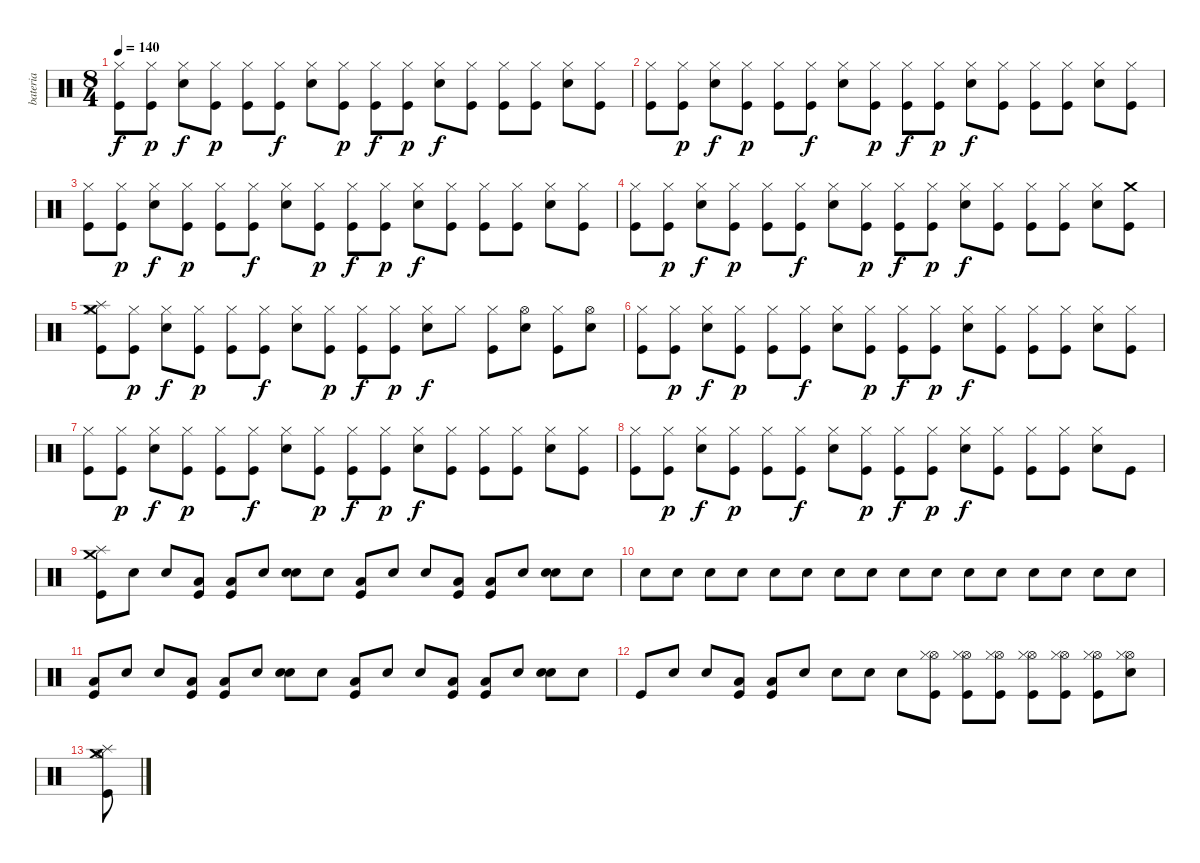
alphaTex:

\track ("bateria" "bateria") {instrument percussion}
\staff {score}
\articulation defaults
\ts (8 4)
\tempo 140
\clef neutral
\ks c
("Hi-Hat (closed)" "Kick (hit)").8{dy f} ("Hi-Hat (closed)" "Kick (hit)").8{dy p} ("Hi-Hat (closed)" "Electric Snare (hit)").8{dy f} ("Hi-Hat (closed)" "Kick (hit)").8{dy p} ("Hi-Hat (closed)" "Kick (hit)").8 ("Hi-Hat (closed)" "Kick (hit)").8{dy f} ("Hi-Hat (closed)" "Electric Snare (hit)").8 ("Hi-Hat (closed)" "Kick (hit)").8{dy p} ("Hi-Hat (closed)" "Kick (hit)").8{dy f} ("Hi-Hat (closed)" "Kick (hit)").8{dy p} ("Hi-Hat (closed)" "Electric Snare (hit)").8{dy f} ("Hi-Hat (closed)" "Kick (hit)").8 ("Hi-Hat (closed)" "Kick (hit)").8 ("Hi-Hat (closed)" "Kick (hit)").8 ("Hi-Hat (closed)" "Electric Snare (hit)").8 ("Hi-Hat (closed)" "Kick (hit)").8 |
("Hi-Hat (closed)" "Kick (hit)").8 ("Hi-Hat (closed)" "Kick (hit)").8{dy p} ("Hi-Hat (closed)" "Electric Snare (hit)").8{dy f} ("Hi-Hat (closed)" "Kick (hit)").8{dy p} ("Hi-Hat (closed)" "Kick (hit)").8 ("Hi-Hat (closed)" "Kick (hit)").8{dy f} ("Hi-Hat (closed)" "Electric Snare (hit)").8 ("Hi-Hat (closed)" "Kick (hit)").8{dy p} ("Hi-Hat (closed)" "Kick (hit)").8{dy f} ("Hi-Hat (closed)" "Kick (hit)").8{dy p} ("Hi-Hat (closed)" "Electric Snare (hit)").8{dy f} ("Hi-Hat (closed)" "Kick (hit)").8 ("Hi-Hat (closed)" "Kick (hit)").8 ("Hi-Hat (closed)" "Kick (hit)").8 ("Hi-Hat (closed)" "Electric Snare (hit)").8 ("Hi-Hat (closed)" "Kick (hit)").8 |
("Hi-Hat (closed)" "Kick (hit)").8 ("Hi-Hat (closed)" "Kick (hit)").8{dy p} ("Hi-Hat (closed)" "Electric Snare (hit)").8{dy f} ("Hi-Hat (closed)" "Kick (hit)").8{dy p} ("Hi-Hat (closed)" "Kick (hit)").8 ("Hi-Hat (closed)" "Kick (hit)").8{dy f} ("Hi-Hat (closed)" "Electric Snare (hit)").8 ("Hi-Hat (closed)" "Kick (hit)").8{dy p} ("Hi-Hat (closed)" "Kick (hit)").8{dy f} ("Hi-Hat (closed)" "Kick (hit)").8{dy p} ("Hi-Hat (closed)" "Electric Snare (hit)").8{dy f} ("Hi-Hat (closed)" "Kick (hit)").8 ("Hi-Hat (closed)" "Kick (hit)").8 ("Hi-Hat (closed)" "Kick (hit)").8 ("Hi-Hat (closed)" "Electric Snare (hit)").8 ("Hi-Hat (closed)" "Kick (hit)").8 |
("Hi-Hat (closed)" "Kick (hit)").8 ("Hi-Hat (closed)" "Kick (hit)").8{dy p} ("Hi-Hat (closed)" "Electric Snare (hit)").8{dy f} ("Hi-Hat (closed)" "Kick (hit)").8{dy p} ("Hi-Hat (closed)" "Kick (hit)").8 ("Hi-Hat (closed)" "Kick (hit)").8{dy f} ("Hi-Hat (closed)" "Electric Snare (hit)").8 ("Hi-Hat (closed)" "Kick (hit)").8{dy p} ("Hi-Hat (closed)" "Kick (hit)").8{dy f} ("Hi-Hat (closed)" "Kick (hit)").8{dy p} ("Hi-Hat (closed)" "Electric Snare (hit)").8{dy f} ("Hi-Hat (closed)" "Kick (hit)").8 ("Hi-Hat (closed)" "Kick (hit)").8 ("Hi-Hat (closed)" "Kick (hit)").8 ("Hi-Hat (closed)" "Electric Snare (hit)").8 ("Crash medium (hit)" "Kick (hit)").8 |
("Hi-Hat (closed)" "Splash (hit)" "Crash medium (hit)" "Kick (hit)").8 ("Hi-Hat (closed)" "Kick (hit)").8{dy p} ("Hi-Hat (closed)" "Electric Snare (hit)").8{dy f} ("Hi-Hat (closed)" "Kick (hit)").8{dy p} ("Hi-Hat (closed)" "Kick (hit)").8 ("Hi-Hat (closed)" "Kick (hit)").8{dy f} ("Hi-Hat (closed)" "Electric Snare (hit)").8 ("Hi-Hat (closed)" "Kick (hit)").8{dy p} ("Hi-Hat (closed)" "Kick (hit)").8{dy f} ("Hi-Hat (closed)" "Kick (hit)").8{dy p} ("Hi-Hat (closed)" "Electric Snare (hit)").8{dy f} "Hi-Hat (closed)".8 ("Hi-Hat (closed)" "Kick (hit)").8 ("Hi-Hat (open)" "Electric Snare (hit)").8 ("Hi-Hat (closed)" "Kick (hit)").8 ("Hi-Hat (open)" "Electric Snare (hit)").8 |
("Hi-Hat (closed)" "Kick (hit)").8 ("Hi-Hat (closed)" "Kick (hit)").8{dy p} ("Hi-Hat (closed)" "Electric Snare (hit)").8{dy f} ("Hi-Hat (closed)" "Kick (hit)").8{dy p} ("Hi-Hat (closed)" "Kick (hit)").8 ("Hi-Hat (closed)" "Kick (hit)").8{dy f} ("Hi-Hat (closed)" "Electric Snare (hit)").8 ("Hi-Hat (closed)" "Kick (hit)").8{dy p} ("Hi-Hat (closed)" "Kick (hit)").8{dy f} ("Hi-Hat (closed)" "Kick (hit)").8{dy p} ("Hi-Hat (closed)" "Electric Snare (hit)").8{dy f} ("Hi-Hat (closed)" "Kick (hit)").8 ("Hi-Hat (closed)" "Kick (hit)").8 ("Hi-Hat (closed)" "Kick (hit)").8 ("Hi-Hat (closed)" "Electric Snare (hit)").8 ("Hi-Hat (closed)" "Kick (hit)").8 |
("Hi-Hat (closed)" "Kick (hit)").8 ("Hi-Hat (closed)" "Kick (hit)").8{dy p} ("Hi-Hat (closed)" "Electric Snare (hit)").8{dy f} ("Hi-Hat (closed)" "Kick (hit)").8{dy p} ("Hi-Hat (closed)" "Kick (hit)").8 ("Hi-Hat (closed)" "Kick (hit)").8{dy f} ("Hi-Hat (closed)" "Electric Snare (hit)").8 ("Hi-Hat (closed)" "Kick (hit)").8{dy p} ("Hi-Hat (closed)" "Kick (hit)").8{dy f} ("Hi-Hat (closed)" "Kick (hit)").8{dy p} ("Hi-Hat (closed)" "Electric Snare (hit)").8{dy f} ("Hi-Hat (closed)" "Kick (hit)").8 ("Hi-Hat (closed)" "Kick (hit)").8 ("Hi-Hat (closed)" "Kick (hit)").8 ("Hi-Hat (closed)" "Electric Snare (hit)").8 ("Hi-Hat (closed)" "Kick (hit)").8 |
("Hi-Hat (closed)" "Kick (hit)").8 ("Hi-Hat (closed)" "Kick (hit)").8{dy p} ("Hi-Hat (closed)" "Electric Snare (hit)").8{dy f} ("Hi-Hat (closed)" "Kick (hit)").8{dy p} ("Hi-Hat (closed)" "Kick (hit)").8 ("Hi-Hat (closed)" "Kick (hit)").8{dy f} ("Hi-Hat (closed)" "Electric Snare (hit)").8 ("Hi-Hat (closed)" "Kick (hit)").8{dy p} ("Hi-Hat (closed)" "Kick (hit)").8{dy f} ("Hi-Hat (closed)" "Kick (hit)").8{dy p} ("Hi-Hat (closed)" "Electric Snare (hit)").8{dy f} ("Hi-Hat (closed)" "Kick (hit)").8 ("Hi-Hat (closed)" "Kick (hit)").8 ("Hi-Hat (closed)" "Kick (hit)").8 ("Hi-Hat (closed)" "Electric Snare (hit)").8 "Kick (hit)".8 |
("Splash (hit)" "Crash medium (hit)" "Kick (hit)").8 "Snare (hit)".8 "Snare (hit)".8 ("Low Tom (hit)" "Kick (hit)").8 ("Low Tom (hit)" "Kick (hit)").8 "Snare (hit)".8 ("Electric Snare (hit)" "Snare (hit)").8 "Snare (hit)".8 ("Low Tom (hit)" "Kick (hit)").8 "Snare (hit)".8 "Snare (hit)".8 ("Low Tom (hit)" "Kick (hit)").8 ("Kick (hit)" "Low Tom (hit)").8 "Snare (hit)".8 ("Electric Snare (hit)" "Snare (hit)").8 "Snare (hit)".8 |
"Snare (hit)".8 "Snare (hit)".8 "Snare (hit)".8 "Snare (hit)".8 "Snare (hit)".8 "Snare (hit)".8 "Snare (hit)".8 "Snare (hit)".8 "Snare (hit)".8 "Snare (hit)".8 "Snare (hit)".8 "Snare (hit)".8 "Snare (hit)".8 "Snare (hit)".8 "Snare (hit)".8 "Snare (hit)".8 |
("Low Tom (hit)" "Kick (hit)").8 "Snare (hit)".8 "Snare (hit)".8 ("Low Tom (hit)" "Kick (hit)").8 ("Low Tom (hit)" "Kick (hit)").8 "Snare (hit)".8 ("Electric Snare (hit)" "Snare (hit)").8 "Snare (hit)".8 ("Low Tom (hit)" "Kick (hit)").8 "Snare (hit)".8 "Snare (hit)".8 ("Low Tom (hit)" "Kick (hit)").8 ("Low Tom (hit)" "Kick (hit)").8 "Snare (hit)".8 ("Electric Snare (hit)" "Snare (hit)").8 "Snare (hit)".8 |
"Kick (hit)".8 "Snare (hit)".8 "Snare (hit)".8 ("Low Tom (hit)" "Kick (hit)").8 ("Low Tom (hit)" "Kick (hit)").8 "Snare (hit)".8 "Snare (hit)".8 "Snare (hit)".8 "Snare (hit)".8 ("Hi-Hat (open)" "Hi-Hat (closed)" "Kick (hit)").8 ("Hi-Hat (open)" "Hi-Hat (closed)" "Kick (hit)").8 ("Hi-Hat (open)" "Hi-Hat (closed)" "Kick (hit)").8 ("Hi-Hat (open)" "Hi-Hat (closed)" "Kick (hit)").8 ("Hi-Hat (open)" "Hi-Hat (closed)" "Kick (hit)").8 ("Hi-Hat (open)" "Hi-Hat (closed)" "Kick (hit)").8 ("Hi-Hat (open)" "Hi-Hat (closed)" "Snare (hit)").8 |
("Crash medium (hit)" "Splash (hit)" "Hi-Hat (open)" "Kick (hit)").8
